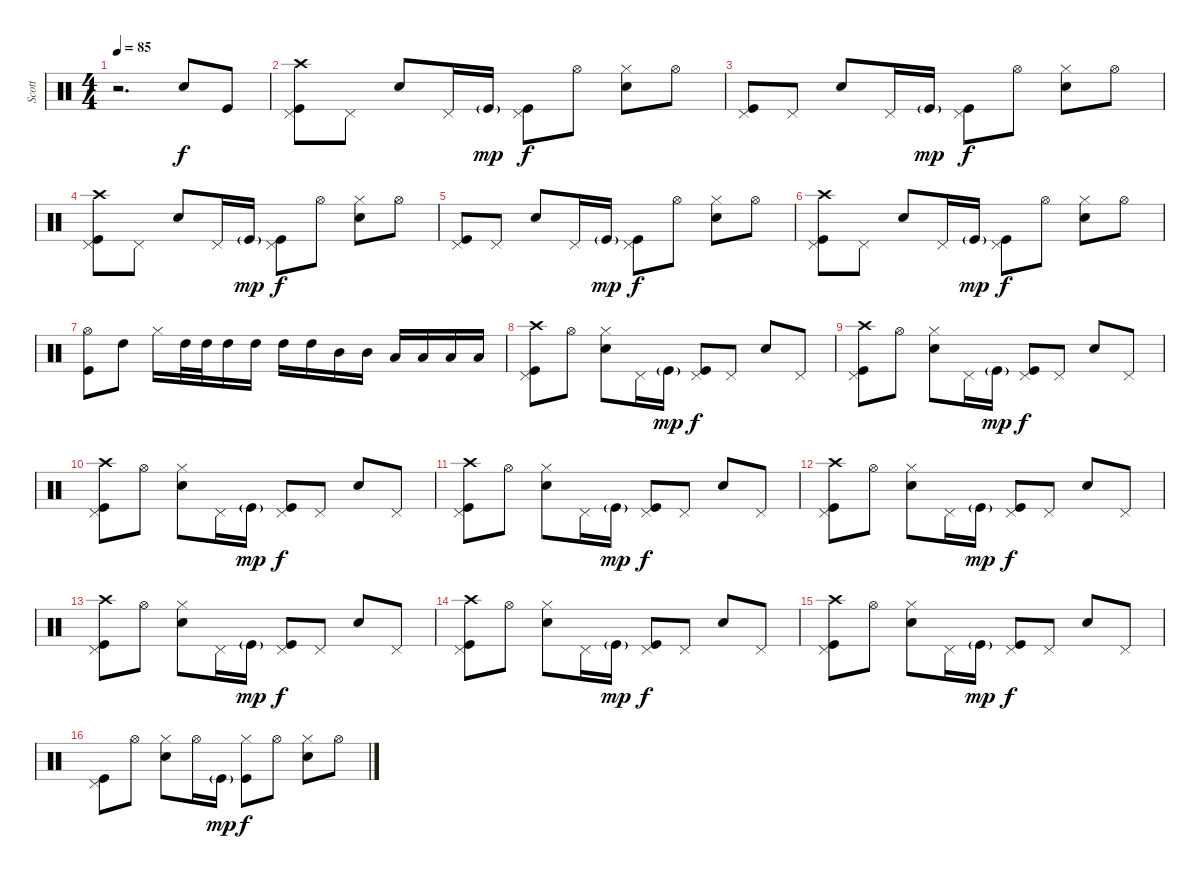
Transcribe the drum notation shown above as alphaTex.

\track ("Scott" "Scott") {instrument percussion}
\staff {score}
\articulation defaults
\ts (4 4)
\tempo 85
\clef neutral
\ks c
r.2{d dy f} "Snare (hit) 2".8 "Kick (hit)".8 |
("Kick (hit)" "Pedal Hi-Hat (hit)" "Crash high (hit)").8 "Pedal Hi-Hat (hit)".8 "Snare (hit) 2".8 "Pedal Hi-Hat (hit)".16 "Kick (hit)"{g}.16{dy mp} ("Kick (hit)" "Pedal Hi-Hat (hit)").8{dy f} "Hi-Hat (open)".8 ("Snare (hit) 2" "Hi-Hat (closed)").8 "Hi-Hat (open)".8 |
("Kick (hit)" "Pedal Hi-Hat (hit)").8 "Pedal Hi-Hat (hit)".8 "Snare (hit) 2".8 "Pedal Hi-Hat (hit)".16 "Kick (hit)"{g}.16{dy mp} ("Kick (hit)" "Pedal Hi-Hat (hit)").8{dy f} "Hi-Hat (open)".8 ("Snare (hit) 2" "Hi-Hat (closed)").8 "Hi-Hat (open)".8 |
("Kick (hit)" "Pedal Hi-Hat (hit)" "Crash high (hit)").8 "Pedal Hi-Hat (hit)".8 "Snare (hit) 2".8 "Pedal Hi-Hat (hit)".16 "Kick (hit)"{g}.16{dy mp} ("Kick (hit)" "Pedal Hi-Hat (hit)").8{dy f} "Hi-Hat (open)".8 ("Snare (hit) 2" "Hi-Hat (closed)").8 "Hi-Hat (open)".8 |
("Kick (hit)" "Pedal Hi-Hat (hit)").8 "Pedal Hi-Hat (hit)".8 "Snare (hit) 2".8 "Pedal Hi-Hat (hit)".16 "Kick (hit)"{g}.16{dy mp} ("Kick (hit)" "Pedal Hi-Hat (hit)").8{dy f} "Hi-Hat (open)".8 ("Snare (hit) 2" "Hi-Hat (closed)").8 "Hi-Hat (open)".8 |
("Kick (hit)" "Pedal Hi-Hat (hit)" "Crash high (hit)").8 "Pedal Hi-Hat (hit)".8 "Snare (hit) 2".8 "Pedal Hi-Hat (hit)".16 "Kick (hit)"{g}.16{dy mp} ("Kick (hit)" "Pedal Hi-Hat (hit)").8{dy f} "Hi-Hat (open)".8 ("Snare (hit) 2" "Hi-Hat (closed)").8 "Hi-Hat (open)".8 |
("Kick (hit)" "Hi-Hat (open)").8 "High Tom (hit)".8 "Hi-Hat (closed)".16 "High Tom (hit)".32 "High Tom (hit)".32 "High Tom (hit)".16 "High Tom (hit)".16 "High Tom (hit)".16 "High Tom (hit)".16 "Mid Tom (hit)".16 "Mid Tom (hit)".16 "Low Tom (hit)".16 "Low Tom (hit)".16 "Low Tom (hit)".16 "Low Floor Tom (hit)".16 |
("Kick (hit)" "Pedal Hi-Hat (hit)" "Crash high (hit)").8 "Hi-Hat (open)".8 ("Snare (hit) 2" "Hi-Hat (closed)").8 "Pedal Hi-Hat (hit)".16 "Kick (hit)"{g}.16{dy mp} ("Kick (hit)" "Pedal Hi-Hat (hit)").8{dy f} "Pedal Hi-Hat (hit)".8 "Snare (hit) 2".8 "Pedal Hi-Hat (hit)".8 |
("Kick (hit)" "Pedal Hi-Hat (hit)" "Crash high (hit)").8 "Hi-Hat (open)".8 ("Snare (hit) 2" "Hi-Hat (closed)").8 "Pedal Hi-Hat (hit)".16 "Kick (hit)"{g}.16{dy mp} ("Kick (hit)" "Pedal Hi-Hat (hit)").8{dy f} "Pedal Hi-Hat (hit)".8 "Snare (hit) 2".8 "Pedal Hi-Hat (hit)".8 |
("Kick (hit)" "Pedal Hi-Hat (hit)" "Crash high (hit)").8 "Hi-Hat (open)".8 ("Snare (hit) 2" "Hi-Hat (closed)").8 "Pedal Hi-Hat (hit)".16 "Kick (hit)"{g}.16{dy mp} ("Kick (hit)" "Pedal Hi-Hat (hit)").8{dy f} "Pedal Hi-Hat (hit)".8 "Snare (hit) 2".8 "Pedal Hi-Hat (hit)".8 |
("Kick (hit)" "Pedal Hi-Hat (hit)" "Crash high (hit)").8 "Hi-Hat (open)".8 ("Snare (hit) 2" "Hi-Hat (closed)").8 "Pedal Hi-Hat (hit)".16 "Kick (hit)"{g}.16{dy mp} ("Kick (hit)" "Pedal Hi-Hat (hit)").8{dy f} "Pedal Hi-Hat (hit)".8 "Snare (hit) 2".8 "Pedal Hi-Hat (hit)".8 |
("Kick (hit)" "Pedal Hi-Hat (hit)" "Crash high (hit)").8 "Hi-Hat (open)".8 ("Snare (hit) 2" "Hi-Hat (closed)").8 "Pedal Hi-Hat (hit)".16 "Kick (hit)"{g}.16{dy mp} ("Kick (hit)" "Pedal Hi-Hat (hit)").8{dy f} "Pedal Hi-Hat (hit)".8 "Snare (hit) 2".8 "Pedal Hi-Hat (hit)".8 |
("Kick (hit)" "Pedal Hi-Hat (hit)" "Crash high (hit)").8 "Hi-Hat (open)".8 ("Snare (hit) 2" "Hi-Hat (closed)").8 "Pedal Hi-Hat (hit)".16 "Kick (hit)"{g}.16{dy mp} ("Kick (hit)" "Pedal Hi-Hat (hit)").8{dy f} "Pedal Hi-Hat (hit)".8 "Snare (hit) 2".8 "Pedal Hi-Hat (hit)".8 |
("Kick (hit)" "Pedal Hi-Hat (hit)" "Crash high (hit)").8 "Hi-Hat (open)".8 ("Snare (hit) 2" "Hi-Hat (closed)").8 "Pedal Hi-Hat (hit)".16 "Kick (hit)"{g}.16{dy mp} ("Kick (hit)" "Pedal Hi-Hat (hit)").8{dy f} "Pedal Hi-Hat (hit)".8 "Snare (hit) 2".8 "Pedal Hi-Hat (hit)".8 |
("Kick (hit)" "Pedal Hi-Hat (hit)" "Crash high (hit)").8 "Hi-Hat (open)".8 ("Snare (hit) 2" "Hi-Hat (closed)").8 "Pedal Hi-Hat (hit)".16 "Kick (hit)"{g}.16{dy mp} ("Kick (hit)" "Pedal Hi-Hat (hit)").8{dy f} "Pedal Hi-Hat (hit)".8 "Snare (hit) 2".8 "Pedal Hi-Hat (hit)".8 |
("Kick (hit)" "Pedal Hi-Hat (hit)").8 "Hi-Hat (open)".8 ("Snare (hit) 2" "Hi-Hat (closed)").8 "Hi-Hat (open)".16 "Kick (hit)"{g}.16{dy mp} ("Kick (hit)" "Hi-Hat (closed)").8{dy f} "Hi-Hat (open)".8 ("Snare (hit) 2" "Hi-Hat (closed)").8 "Hi-Hat (open)".8
